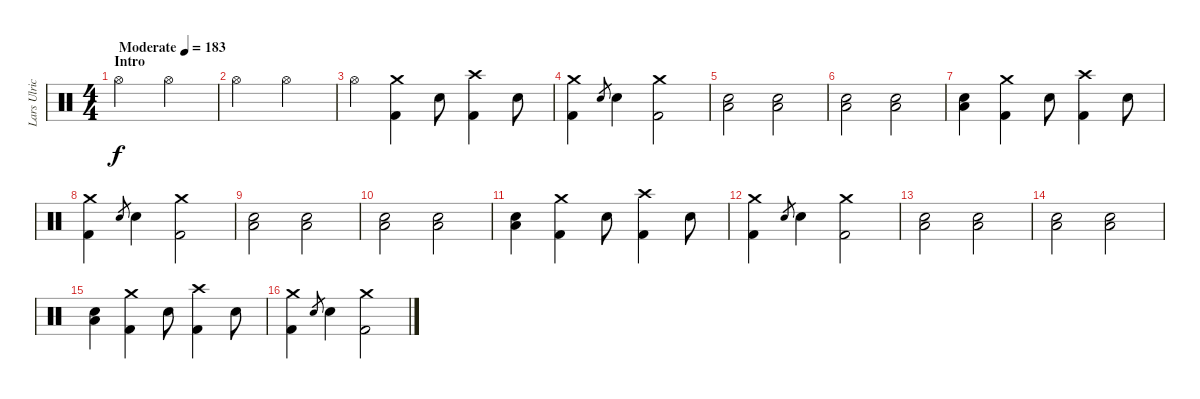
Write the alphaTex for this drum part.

\track ("Lars Ulrich" "Lars Ulric") {instrument percussion}
\staff {score}
\articulation defaults
\ts (4 4)
\section ("" "Intro")
\tempo (183 "Moderate")
\clef neutral
\ks c "Hi-Hat (open)".2{dy f} "Hi-Hat (open)".2
|
"Hi-Hat (open)".2 "Hi-Hat (open)".2 |
"Hi-Hat (open)".4 ("Crash medium (hit)" "Kick (hit) 2").4 "Snare (hit) 2".8 ("Crash high (hit)" "Kick (hit) 2").4 "Snare (hit) 2".8 |
("Crash medium (hit)" "Kick (hit) 2").4 "Snare (hit) 2".8{gr} "Snare (hit) 2".4 ("Crash medium (hit)" "Kick (hit) 2").2 |
("Snare (hit) 2" "Low Floor Tom (hit)").2 ("Snare (hit) 2" "Low Floor Tom (hit)").2 |
("Snare (hit) 2" "Low Floor Tom (hit)").2 ("Snare (hit) 2" "Low Floor Tom (hit)").2 |
("Snare (hit) 2" "Low Floor Tom (hit)").4 ("Crash medium (hit)" "Kick (hit) 2").4 "Snare (hit) 2".8 ("Crash high (hit)" "Kick (hit) 2").4 "Snare (hit) 2".8 |
("Crash medium (hit)" "Kick (hit) 2").4 "Snare (hit) 2".8{gr} "Snare (hit) 2".4 ("Crash medium (hit)" "Kick (hit) 2").2 |
("Snare (hit) 2" "Low Floor Tom (hit)").2 ("Snare (hit) 2" "Low Floor Tom (hit)").2 |
("Snare (hit) 2" "Low Floor Tom (hit)").2 ("Snare (hit) 2" "Low Floor Tom (hit)").2 |
("Snare (hit) 2" "Low Floor Tom (hit)").4 ("Crash medium (hit)" "Kick (hit) 2").4 "Snare (hit) 2".8 ("Crash high (hit)" "Kick (hit) 2").4 "Snare (hit) 2".8 |
("Crash medium (hit)" "Kick (hit) 2").4 "Snare (hit) 2".8{gr} "Snare (hit) 2".4 ("Crash medium (hit)" "Kick (hit) 2").2 |
("Snare (hit) 2" "Low Floor Tom (hit)").2 ("Snare (hit) 2" "Low Floor Tom (hit)").2 |
("Snare (hit) 2" "Low Floor Tom (hit)").2 ("Snare (hit) 2" "Low Floor Tom (hit)").2 |
("Snare (hit) 2" "Low Floor Tom (hit)").4 ("Crash medium (hit)" "Kick (hit) 2").4 "Snare (hit) 2".8 ("Crash high (hit)" "Kick (hit) 2").4 "Snare (hit) 2".8 |
("Crash medium (hit)" "Kick (hit) 2").4 "Snare (hit) 2".8{gr} "Snare (hit) 2".4 ("Crash medium (hit)" "Kick (hit) 2").2
